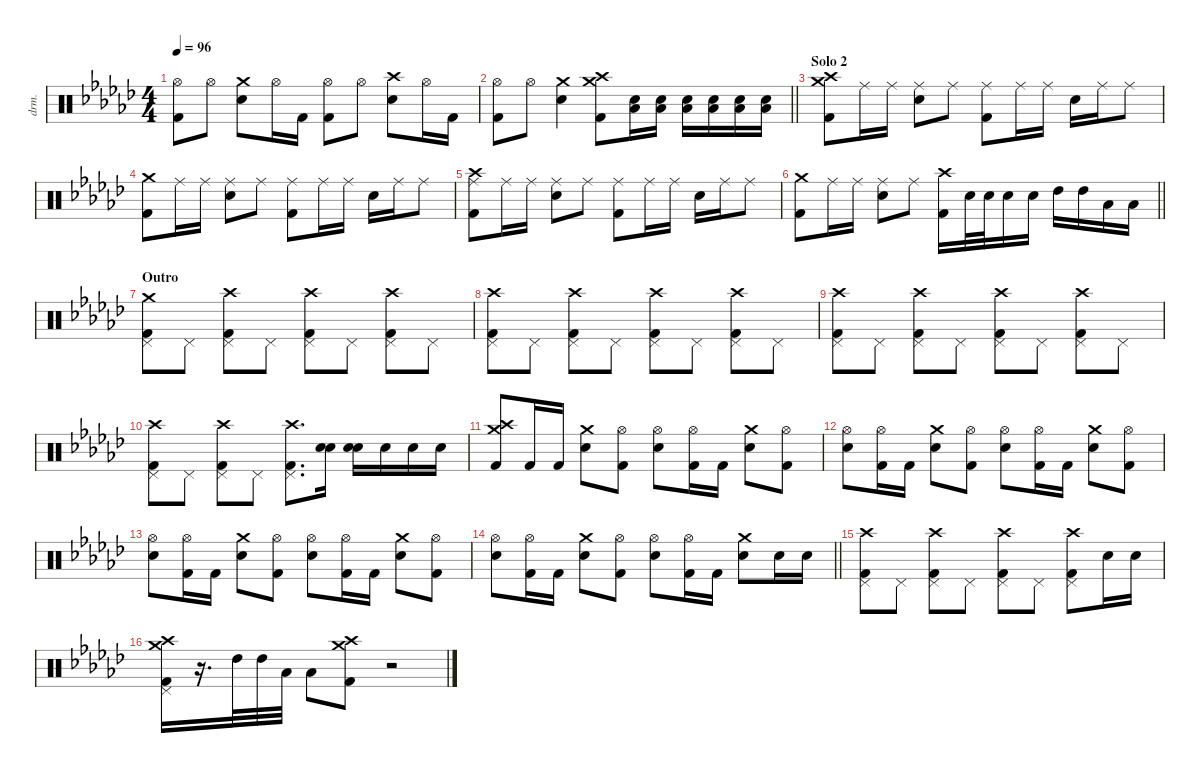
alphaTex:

\defaultSystemsLayout 4
\hideDynamics
\bracketExtendMode nobrackets
\otherSystemsTrackNameOrientation horizontal
\track ("Drums (Alex Van Halen)" "drm.") {instrument percussion}
\staff {score}
\articulation defaults
\ts (4 4)
\tempo 96
\clef neutral
\ks ebminor
("Hi-Hat (open)"{acc forcenatural} "Kick (hit) 2"{acc forcenatural}).8{dy fff beam Down} "Hi-Hat (open)"{acc forcenatural}.8{dy ff beam Down} ("Snare (hit) 2"{acc forcenatural} "Crash medium (hit)"{acc forcenatural}).8{dy fff beam Down} "Hi-Hat (open)"{acc forcenatural}.16{dy f beam Down} "Kick (hit) 2"{acc forcenatural}.16{dy fff beam Down} ("Kick (hit) 2"{acc forcenatural} "Hi-Hat (open)"{acc forcenatural}).8{beam Down} "Hi-Hat (open)"{acc forcenatural}.8{dy mf beam Down} ("Crash high (hit)"{acc forcenatural} "Snare (hit) 2"{acc forcenatural}).8{dy fff beam Down} "Hi-Hat (open)"{acc forcenatural}.16{dy mf beam Down} "Kick (hit) 2"{acc forcenatural}.16{dy fff beam Down} |
\barLineRight lightlight
("Hi-Hat (open)"{acc forcenatural} "Kick (hit) 2"{acc forcenatural}).8{dy f beam Down} "Hi-Hat (open)"{acc forcenatural}.8{dy pp beam Down} ("Snare (hit) 2"{acc forcenatural} "Crash medium (hit)"{acc forcenatural}).4{dy fff beam Down} ("Crash medium (hit)"{acc forcenatural} "Crash high (hit)"{acc forcenatural} "Kick (hit) 2"{acc forcenatural}).8{dy ff beam Down} ("Snare (hit) 2"{acc forcenatural} "Low Tom (hit)"{acc forcenatural}).16{dy fff beam Down} ("Low Tom (hit)"{acc forcenatural} "Snare (hit) 2"{acc forcenatural}).16{beam Down} ("Low Tom (hit)"{acc forcenatural} "Snare (hit) 2"{acc forcenatural}).16{beam Down} ("Snare (hit) 2"{acc forcenatural} "Low Tom (hit)"{acc forcenatural}).16{dy ff beam Down} ("Snare (hit) 2"{acc forcenatural} "Low Tom (hit)"{acc forcenatural}).16{beam Down} ("Snare (hit) 2"{acc forcenatural} "Low Tom (hit)"{acc forcenatural}).16{beam Down} |
\section ("" "Solo 2")
("Kick (hit) 2"{acc forcenatural} "Crash medium (hit)"{acc forcenatural} "Crash high (hit)"{acc forcenatural}).8{dy fff beam Down} "Ride (middle)"{acc forcenatural}.16{dy ff beam Down} "Ride (middle)"{acc forcenatural}.16{beam Down} ("Ride (middle)"{acc forcenatural} "Snare (hit) 2"{acc forcenatural}).8{dy fff beam Down} "Ride (middle)"{acc forcenatural}.8{dy ff beam Down} ("Ride (middle)"{acc forcenatural} "Kick (hit) 2"{acc forcenatural}).8{dy fff beam Down} "Ride (middle)"{acc forcenatural}.16{dy ff beam Down} "Ride (middle)"{acc forcenatural}.16{beam Down} "Snare (hit) 2"{acc forcenatural}.16{dy fff beam Down} "Ride (middle)"{acc forcenatural}.16{beam Down} "Ride (middle)"{acc forcenatural}.8{beam Down} |
("Kick (hit) 2"{acc forcenatural} "Crash medium (hit)"{acc forcenatural}).8{beam Down} "Ride (middle)"{acc forcenatural}.16{dy ff beam Down} "Ride (middle)"{acc forcenatural}.16{beam Down} ("Snare (hit) 2"{acc forcenatural} "Ride (middle)"{acc forcenatural}).8{dy fff beam Down} "Ride (middle)"{acc forcenatural}.8{dy ff beam Down} ("Kick (hit) 2"{acc forcenatural} "Ride (middle)"{acc forcenatural}).8{dy fff beam Down} "Ride (middle)"{acc forcenatural}.16{dy ff beam Down} "Ride (middle)"{acc forcenatural}.16{dy f beam Down} "Snare (hit) 2"{acc forcenatural}.16{dy fff beam Down} "Ride (middle)"{acc forcenatural}.16{beam Down} "Ride (middle)"{acc forcenatural}.8{dy ff beam Down} |
("Kick (hit) 2"{acc forcenatural} "Crash high (hit)"{acc forcenatural} "Ride (middle)"{acc forcenatural}).8{dy fff beam Down} "Ride (middle)"{acc forcenatural}.16{dy ff beam Down} "Ride (middle)"{acc forcenatural}.16{dy fff beam Down} ("Snare (hit) 2"{acc forcenatural} "Ride (middle)"{acc forcenatural}).8{beam Down} "Ride (middle)"{acc forcenatural}.8{dy ff beam Down} ("Kick (hit) 2"{acc forcenatural} "Ride (middle)"{acc forcenatural}).8{dy fff beam Down} "Ride (middle)"{acc forcenatural}.16{dy ff beam Down} "Ride (middle)"{acc forcenatural}.16{beam Down} "Snare (hit) 2"{acc forcenatural}.16{dy fff beam Down} "Ride (middle)"{acc forcenatural}.16{beam Down} "Ride (middle)"{acc forcenatural}.8{dy ff beam Down} |
\barLineRight lightlight
("Kick (hit) 2"{acc forcenatural} "Crash medium (hit)"{acc forcenatural}).8{dy fff beam Down} "Ride (middle)"{acc forcenatural}.16{beam Down} "Ride (middle)"{acc forcenatural}.16{dy ff beam Down} ("Ride (middle)"{acc forcenatural} "Snare (hit) 2"{acc forcenatural}).8{dy fff beam Down} "Ride (middle)"{acc forcenatural}.8{dy ff beam Down} ("Crash high (hit)"{acc forcenatural} "Kick (hit) 2"{acc forcenatural}).16{dy fff beam Down} "Snare (hit) 2"{acc forcenatural}.32{beam Down} "Snare (hit) 2"{acc forcenatural}.32{beam Down} "Snare (hit) 2"{acc forcenatural}.16{beam Down} "Snare (hit) 2"{acc forcenatural}.16{beam Down} "High Tom (hit)"{acc forcenatural}.16{beam Down} "High Tom (hit)"{acc forcenatural}.16{beam Down} "Low Tom (hit)"{acc forcenatural}.16{beam Down} "Low Tom (hit)"{acc forcenatural}.16{beam Down} |
\section ("" "Outro")
("Pedal Hi-Hat (hit)"{acc forcenatural} "Kick (hit) 2"{acc forcenatural} "Crash medium (hit)"{acc forcenatural}).8{dy ff beam Down} "Pedal Hi-Hat (hit)"{acc forcenatural}.8{beam Down} ("Pedal Hi-Hat (hit)"{acc forcenatural} "Kick (hit) 2"{acc forcenatural} "Crash high (hit)"{acc forcenatural}).8{beam Down} "Pedal Hi-Hat (hit)"{acc forcenatural}.8{beam Down} ("Pedal Hi-Hat (hit)"{acc forcenatural} "Crash high (hit)"{acc forcenatural} "Kick (hit) 2"{acc forcenatural}).8{beam Down} "Pedal Hi-Hat (hit)"{acc forcenatural}.8{beam Down} ("Pedal Hi-Hat (hit)"{acc forcenatural} "Kick (hit) 2"{acc forcenatural} "Crash high (hit)"{acc forcenatural}).8{beam Down} "Pedal Hi-Hat (hit)"{acc forcenatural}.8{beam Down} |
("Pedal Hi-Hat (hit)"{acc forcenatural} "Crash high (hit)"{acc forcenatural} "Kick (hit) 2"{acc forcenatural}).8{beam Down} "Pedal Hi-Hat (hit)"{acc forcenatural}.8{beam Down} ("Pedal Hi-Hat (hit)"{acc forcenatural} "Crash high (hit)"{acc forcenatural} "Kick (hit) 2"{acc forcenatural}).8{beam Down} "Pedal Hi-Hat (hit)"{acc forcenatural}.8{beam Down} ("Pedal Hi-Hat (hit)"{acc forcenatural} "Kick (hit) 2"{acc forcenatural} "Crash high (hit)"{acc forcenatural}).8{beam Down} "Pedal Hi-Hat (hit)"{acc forcenatural}.8{beam Down} ("Pedal Hi-Hat (hit)"{acc forcenatural} "Kick (hit) 2"{acc forcenatural} "Crash high (hit)"{acc forcenatural}).8{beam Down} "Pedal Hi-Hat (hit)"{acc forcenatural}.8{beam Down} |
("Pedal Hi-Hat (hit)"{acc forcenatural} "Crash high (hit)"{acc forcenatural} "Kick (hit) 2"{acc forcenatural}).8{beam Down} "Pedal Hi-Hat (hit)"{acc forcenatural}.8{beam Down} ("Pedal Hi-Hat (hit)"{acc forcenatural} "Crash high (hit)"{acc forcenatural} "Kick (hit) 2"{acc forcenatural}).8{beam Down} "Pedal Hi-Hat (hit)"{acc forcenatural}.8{beam Down} ("Pedal Hi-Hat (hit)"{acc forcenatural} "Kick (hit) 2"{acc forcenatural} "Crash high (hit)"{acc forcenatural}).8{beam Down} "Pedal Hi-Hat (hit)"{acc forcenatural}.8{beam Down} ("Pedal Hi-Hat (hit)"{acc forcenatural} "Kick (hit) 2"{acc forcenatural} "Crash high (hit)"{acc forcenatural}).8{beam Down} "Pedal Hi-Hat (hit)"{acc forcenatural}.8{beam Down} |
("Pedal Hi-Hat (hit)"{acc forcenatural} "Kick (hit) 2"{acc forcenatural} "Crash high (hit)"{acc forcenatural}).8{beam Down} "Pedal Hi-Hat (hit)"{acc forcenatural}.8{beam Down} ("Pedal Hi-Hat (hit)"{acc forcenatural} "Crash high (hit)"{acc forcenatural} "Kick (hit) 2"{acc forcenatural}).8{beam Down} "Pedal Hi-Hat (hit)"{acc forcenatural}.8{beam Down} ("Pedal Hi-Hat (hit)"{acc forcenatural} "Crash high (hit)"{acc forcenatural} "Kick (hit) 2"{acc forcenatural}).8{d beam Down} ("Snare (hit) 2"{acc forcenatural} "Snare (hit) 2"{acc forcenatural}).16{dy fff beam Down} ("Snare (hit) 2"{acc forcenatural} "Snare (hit) 2"{acc forcenatural}).16{beam Down} "Snare (hit) 2"{acc forcenatural}.16{beam Down} "Snare (hit) 2"{acc forcenatural}.16{dy ff beam Down} "Snare (hit) 2"{acc forcenatural}.16{dy fff beam Down} |
("Crash medium (hit)"{acc forcenatural} "Kick (hit) 2"{acc forcenatural} "Crash high (hit)"{acc forcenatural}).8{beam Up} "Kick (hit) 2"{acc forcenatural}.16{beam Up} "Kick (hit) 2"{acc forcenatural}.16{beam Up} ("Crash medium (hit)"{acc forcenatural} "Snare (hit) 2"{acc forcenatural}).8{dy ff beam Down} ("Hi-Hat (open)"{acc forcenatural} "Kick (hit) 2"{acc forcenatural}).8{dy mf beam Down} ("Snare (hit) 2"{acc forcenatural} "Hi-Hat (open)"{acc forcenatural}).8{dy ff beam Down} ("Kick (hit) 2"{acc forcenatural} "Hi-Hat (open)"{acc forcenatural}).16{dy fff beam Down} "Kick (hit) 2"{acc forcenatural}.16{beam Down} ("Snare (hit) 2"{acc forcenatural} "Crash medium (hit)"{acc forcenatural}).8{beam Down} ("Hi-Hat (open)"{acc forcenatural} "Kick (hit) 2"{acc forcenatural}).8{dy f beam Down} |
("Snare (hit) 2"{acc forcenatural} "Hi-Hat (open)"{acc forcenatural}).8{dy ff beam Down} ("Kick (hit) 2"{acc forcenatural} "Hi-Hat (open)"{acc forcenatural}).16{dy fff beam Down} "Kick (hit) 2"{acc forcenatural}.16{beam Down} ("Snare (hit) 2"{acc forcenatural} "Crash medium (hit)"{acc forcenatural}).8{beam Down} ("Hi-Hat (open)"{acc forcenatural} "Kick (hit) 2"{acc forcenatural}).8{beam Down} ("Snare (hit) 2"{acc forcenatural} "Hi-Hat (open)"{acc forcenatural}).8{dy ff beam Down} ("Kick (hit) 2"{acc forcenatural} "Hi-Hat (open)"{acc forcenatural}).16{dy fff beam Down} "Kick (hit) 2"{acc forcenatural}.16{beam Down} ("Snare (hit) 2"{acc forcenatural} "Crash medium (hit)"{acc forcenatural}).8{beam Down} ("Hi-Hat (open)"{acc forcenatural} "Kick (hit) 2"{acc forcenatural}).8{dy mf beam Down} |
("Snare (hit) 2"{acc forcenatural} "Hi-Hat (open)"{acc forcenatural}).8{dy ff beam Down} ("Kick (hit) 2"{acc forcenatural} "Hi-Hat (open)"{acc forcenatural}).16{dy fff beam Down} "Kick (hit) 2"{acc forcenatural}.16{beam Down} ("Snare (hit) 2"{acc forcenatural} "Crash medium (hit)"{acc forcenatural}).8{beam Down} ("Hi-Hat (open)"{acc forcenatural} "Kick (hit) 2"{acc forcenatural}).8{beam Down} ("Snare (hit) 2"{acc forcenatural} "Hi-Hat (open)"{acc forcenatural}).8{dy ff beam Down} ("Hi-Hat (open)"{acc forcenatural} "Kick (hit) 2"{acc forcenatural}).16{dy f beam Down} "Kick (hit) 2"{acc forcenatural}.16{dy fff beam Down} ("Crash medium (hit)"{acc forcenatural} "Snare (hit) 2"{acc forcenatural}).8{beam Down} ("Hi-Hat (open)"{acc forcenatural} "Kick (hit) 2"{acc forcenatural}).8{dy p beam Down} |
\barLineRight lightlight
("Snare (hit) 2"{acc forcenatural} "Hi-Hat (open)"{acc forcenatural}).8{dy ff beam Down} ("Hi-Hat (open)"{acc forcenatural} "Kick (hit) 2"{acc forcenatural}).16{dy f beam Down} "Kick (hit) 2"{acc forcenatural}.16{dy fff beam Down} ("Crash medium (hit)"{acc forcenatural} "Snare (hit) 2"{acc forcenatural}).8{beam Down} ("Hi-Hat (open)"{acc forcenatural} "Kick (hit) 2"{acc forcenatural}).8{dy ff beam Down} ("Snare (hit) 2"{acc forcenatural} "Hi-Hat (open)"{acc forcenatural}).8{beam Down} ("Hi-Hat (open)"{acc forcenatural} "Kick (hit) 2"{acc forcenatural}).16{dy f beam Down} "Kick (hit) 2"{acc forcenatural}.16{dy fff beam Down} ("Crash medium (hit)"{acc forcenatural} "Snare (hit) 2"{acc forcenatural}).8{dy mp beam Down} "Snare (hit) 2"{acc forcenatural}.16{dy ff beam Down} "Snare (hit) 2"{acc forcenatural}.16{dy fff beam Down} |
("Pedal Hi-Hat (hit)"{acc forcenatural} "Crash high (hit)"{acc forcenatural} "Kick (hit) 2"{acc forcenatural}).8{dy ff beam Down} "Pedal Hi-Hat (hit)"{acc forcenatural}.8{beam Down} ("Pedal Hi-Hat (hit)"{acc forcenatural} "Crash high (hit)"{acc forcenatural} "Kick (hit) 2"{acc forcenatural}).8{beam Down} "Pedal Hi-Hat (hit)"{acc forcenatural}.8{beam Down} ("Pedal Hi-Hat (hit)"{acc forcenatural} "Kick (hit) 2"{acc forcenatural} "Crash high (hit)"{acc forcenatural}).8{beam Down} "Pedal Hi-Hat (hit)"{acc forcenatural}.8{beam Down} ("Pedal Hi-Hat (hit)"{acc forcenatural} "Kick (hit) 2"{acc forcenatural} "Crash high (hit)"{acc forcenatural}).8{beam Down} "Snare (hit) 2"{acc forcenatural}.16{beam Down} "Snare (hit) 2"{acc forcenatural}.16{beam Down} |
("Pedal Hi-Hat (hit)"{acc forcenatural} "Crash medium (hit)"{acc forcenatural} "Crash high (hit)"{acc forcenatural} "Kick (hit) 2"{acc forcenatural}).16{beam Down} r.16{d beam Down} "High Tom (hit)"{acc forcenatural}.32{dy fff beam Down} "High Tom (hit)"{acc forcenatural}.32{beam Down} "Low Tom (hit)"{acc forcenatural}.32{beam Down} "Low Tom (hit)"{acc forcenatural}.8{beam Down} ("Crash high (hit)"{acc forcenatural} "Crash medium (hit)"{acc forcenatural} "Kick (hit) 2"{acc forcenatural}).8{dy ff beam Down} r.2{beam Down}
